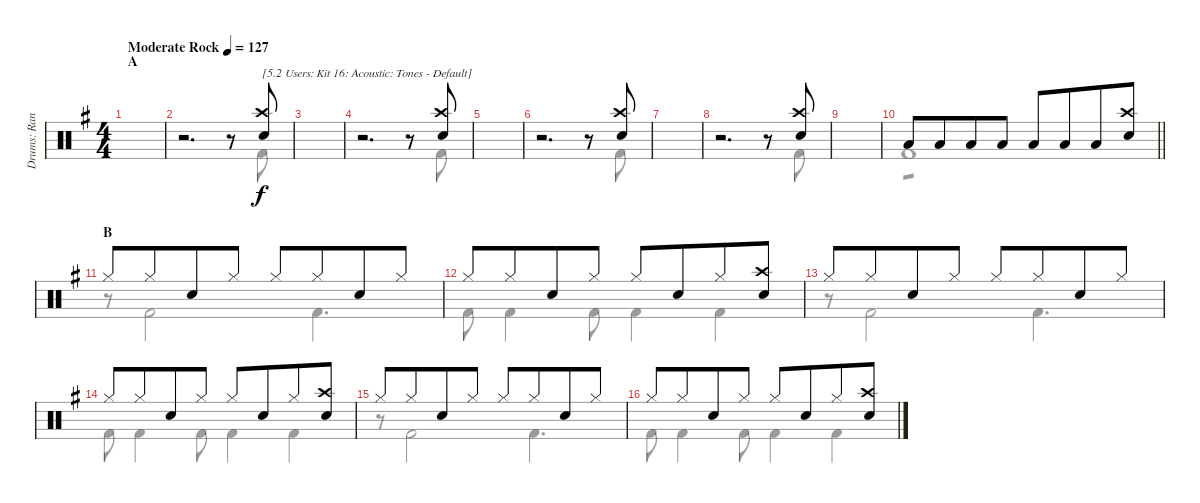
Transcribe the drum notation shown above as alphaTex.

\track ("Drums: Randy" "Drums: Ran") {instrument percussion}
\staff {score}
\articulation defaults
\voice
\ts (4 4)
\section ("" "A")
\tempo (127 "Moderate Rock")
\clef neutral
\ks g
|
r.2{d} r.8 ("Crash high (hit)" "Snare (hit) 2").8{txt "[5.2 Users: Kit 16: Acoustic: Tones - Default]"} |
|
r.2{d} r.8 ("Crash high (hit)" "Snare (hit) 2").8 |
|
r.2{d} r.8 ("Crash high (hit)" "Snare (hit) 2").8 |
|
r.2{d} r.8 ("Crash high (hit)" "Snare (hit) 2").8 |
|
\barLineRight lightlight "Low Tom (hit)".8 "Low Tom (hit)".8{beam merge} "Low Tom (hit)".8 "Low Tom (hit)".8 "Low Tom (hit)".8 "Low Tom (hit)".8{beam merge} "Low Tom (hit)".8
("Crash high (hit)" "Snare (hit) 2").8 |
\section ("" "B")
"Hi-Hat (closed)".8 "Hi-Hat (closed)".8{beam merge} "Snare (hit) 2".8 "Hi-Hat (closed)".8 "Hi-Hat (closed)".8 "Hi-Hat (closed)".8{beam merge} "Snare (hit) 2".8 "Hi-Hat (closed)".8 |
"Hi-Hat (closed)".8 "Hi-Hat (closed)".8{beam merge} "Snare (hit) 2".8 "Hi-Hat (closed)".8 "Hi-Hat (closed)".8 "Snare (hit) 2".8{beam merge} "Hi-Hat (closed)".8 ("Crash high (hit)" "Snare (hit) 2").8 |
"Hi-Hat (closed)".8 "Hi-Hat (closed)".8{beam merge} "Snare (hit) 2".8 "Hi-Hat (closed)".8 "Hi-Hat (closed)".8 "Hi-Hat (closed)".8{beam merge} "Snare (hit) 2".8 "Hi-Hat (closed)".8 |
"Hi-Hat (closed)".8 "Hi-Hat (closed)".8{beam merge} "Snare (hit) 2".8 "Hi-Hat (closed)".8 "Hi-Hat (closed)".8 "Snare (hit) 2".8{beam merge} "Hi-Hat (closed)".8 ("Crash high (hit)" "Snare (hit) 2").8 |
"Hi-Hat (closed)".8 "Hi-Hat (closed)".8{beam merge} "Snare (hit) 2".8 "Hi-Hat (closed)".8 "Hi-Hat (closed)".8 "Hi-Hat (closed)".8{beam merge} "Snare (hit) 2".8 "Hi-Hat (closed)".8 |
"Hi-Hat (closed)".8 "Hi-Hat (closed)".8{beam merge} "Snare (hit) 2".8 "Hi-Hat (closed)".8 "Hi-Hat (closed)".8 "Snare (hit) 2".8{beam merge} "Hi-Hat (closed)".8 ("Crash high (hit)" "Snare (hit) 2").8
\voice
\clef neutral
\ottava regular
\simile none
\ks g
|
r.2{d} r.8 "Kick (hit) 2".8 |
|
r.2{d} r.8 "Kick (hit) 2".8 |
|
r.2{d} r.8 "Kick (hit) 2".8 |
|
r.2{d} r.8 "Kick (hit) 2".8 |
|
\barLineRight lightlight "Kick (hit) 2".1{tp 1}
|
r.8 "Kick (hit) 2".2 "Kick (hit) 2".4{d} |
"Kick (hit) 2".8 "Kick (hit) 2".4 "Kick (hit) 2".8 "Kick (hit) 2".4 "Kick (hit) 2".4 |
r.8 "Kick (hit) 2".2 "Kick (hit) 2".4{d} |
"Kick (hit) 2".8 "Kick (hit) 2".4 "Kick (hit) 2".8 "Kick (hit) 2".4 "Kick (hit) 2".4 |
r.8 "Kick (hit) 2".2 "Kick (hit) 2".4{d} |
"Kick (hit) 2".8 "Kick (hit) 2".4 "Kick (hit) 2".8 "Kick (hit) 2".4 "Kick (hit) 2".4
